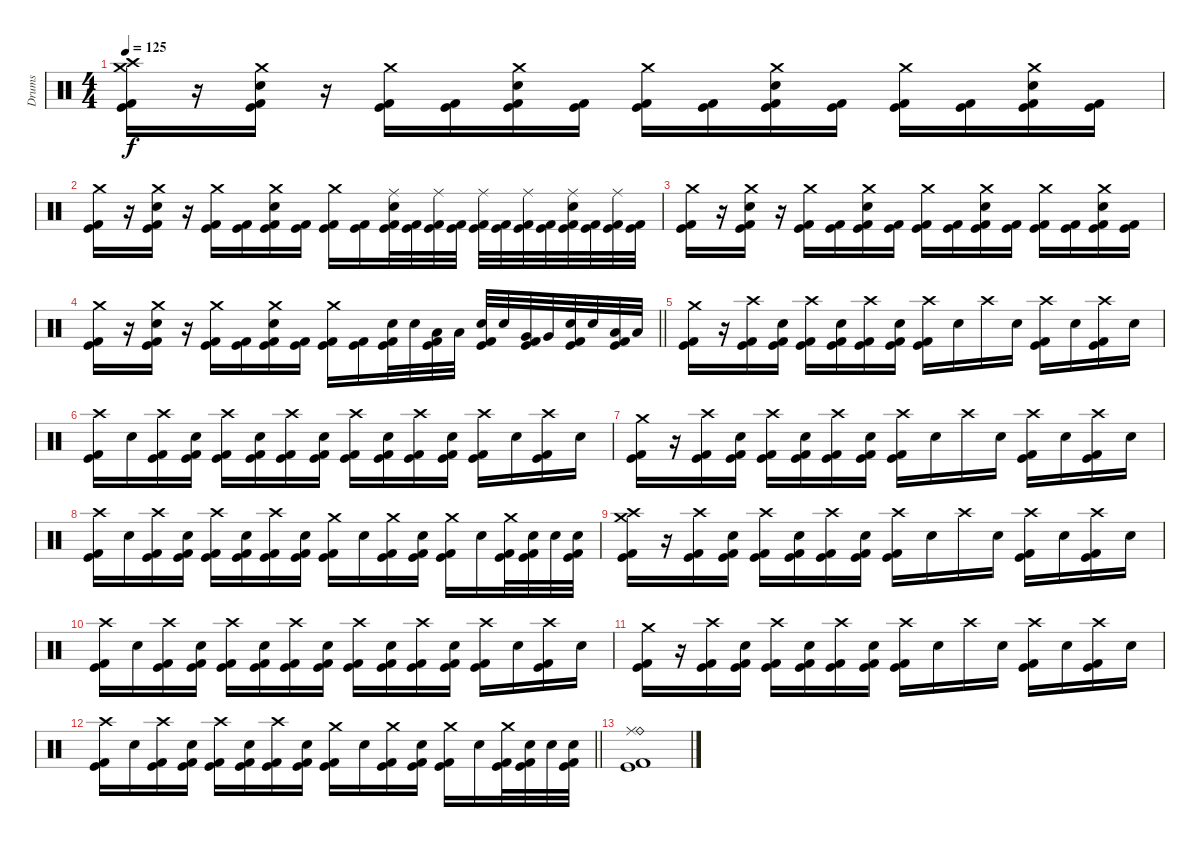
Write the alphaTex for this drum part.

\track ("Drums" "Drums") {instrument percussion}
\staff {score}
\articulation defaults
\ts (4 4)
\tempo 125
\clef neutral
\ks c
("Crash medium (hit)" "Crash high (hit)" "Kick (hit)" "Kick (hit) 2").16{dy f} r.16 ("Crash medium (hit)" "Electric Snare (hit)" "Kick (hit)" "Kick (hit) 2").16 r.16 ("Crash medium (hit)" "Kick (hit)" "Kick (hit) 2").16 ("Kick (hit)" "Kick (hit) 2").16 ("Crash medium (hit)" "Electric Snare (hit)" "Kick (hit)" "Kick (hit) 2").16 ("Kick (hit)" "Kick (hit) 2").16 ("Crash medium (hit)" "Kick (hit)" "Kick (hit) 2").16 ("Kick (hit)" "Kick (hit) 2").16 ("Crash medium (hit)" "Electric Snare (hit)" "Kick (hit)" "Kick (hit) 2").16 ("Kick (hit)" "Kick (hit) 2").16 ("Crash medium (hit)" "Kick (hit)" "Kick (hit) 2").16 ("Kick (hit)" "Kick (hit) 2").16 ("Crash medium (hit)" "Electric Snare (hit)" "Kick (hit)" "Kick (hit) 2").16 ("Kick (hit)" "Kick (hit) 2").16 |
("Crash medium (hit)" "Kick (hit)" "Kick (hit) 2").16 r.16 ("Crash medium (hit)" "Electric Snare (hit)" "Kick (hit)" "Kick (hit) 2").16 r.16 ("Crash medium (hit)" "Kick (hit)" "Kick (hit) 2").16 ("Kick (hit)" "Kick (hit) 2").16 ("Crash medium (hit)" "Electric Snare (hit)" "Kick (hit)" "Kick (hit) 2").16 ("Kick (hit)" "Kick (hit) 2").16 ("Crash medium (hit)" "Kick (hit)" "Kick (hit) 2").16 ("Kick (hit)" "Kick (hit) 2").16 ("Ride (middle)" "Electric Snare (hit)" "Kick (hit)" "Kick (hit) 2").32 ("Kick (hit)" "Kick (hit) 2").32 ("Ride (middle)" "Kick (hit)" "Kick (hit) 2").32 ("Kick (hit)" "Kick (hit) 2").32 ("Ride (middle)" "Kick (hit)" "Kick (hit) 2").32 ("Kick (hit)" "Kick (hit) 2").32 ("Ride (middle)" "Kick (hit)" "Kick (hit) 2").32 ("Kick (hit)" "Kick (hit) 2").32 ("Ride (middle)" "Electric Snare (hit)" "Kick (hit)" "Kick (hit) 2").32 ("Kick (hit)" "Kick (hit) 2").32 ("Ride (middle)" "Kick (hit)" "Kick (hit) 2").32 ("Kick (hit)" "Kick (hit) 2").32 |
("Crash medium (hit)" "Kick (hit)" "Kick (hit) 2").16 r.16 ("Crash medium (hit)" "Electric Snare (hit)" "Kick (hit)" "Kick (hit) 2").16 r.16 ("Crash medium (hit)" "Kick (hit)" "Kick (hit) 2").16 ("Kick (hit)" "Kick (hit) 2").16 ("Crash medium (hit)" "Electric Snare (hit)" "Kick (hit)" "Kick (hit) 2").16 ("Kick (hit)" "Kick (hit) 2").16 ("Crash medium (hit)" "Kick (hit)" "Kick (hit) 2").16 ("Kick (hit)" "Kick (hit) 2").16 ("Crash medium (hit)" "Electric Snare (hit)" "Kick (hit)" "Kick (hit) 2").16 ("Kick (hit)" "Kick (hit) 2").16 ("Crash medium (hit)" "Kick (hit)" "Kick (hit) 2").16 ("Kick (hit)" "Kick (hit) 2").16 ("Crash medium (hit)" "Electric Snare (hit)" "Kick (hit)" "Kick (hit) 2").16 ("Kick (hit)" "Kick (hit) 2").16 |
\barLineRight lightlight
("Crash medium (hit)" "Kick (hit)" "Kick (hit) 2").16 r.16 ("Crash medium (hit)" "Electric Snare (hit)" "Kick (hit)" "Kick (hit) 2").16 r.16 ("Crash medium (hit)" "Kick (hit)" "Kick (hit) 2").16 ("Kick (hit)" "Kick (hit) 2").16 ("Crash medium (hit)" "Electric Snare (hit)" "Kick (hit)" "Kick (hit) 2").16 ("Kick (hit)" "Kick (hit) 2").16 ("Crash medium (hit)" "Kick (hit)" "Kick (hit) 2").16 ("Kick (hit)" "Kick (hit) 2").16 ("Electric Snare (hit)" "Kick (hit)" "Kick (hit) 2").32 "Electric Snare (hit)".32 ("Low Tom (hit)" "Kick (hit)" "Kick (hit) 2").32 "Low Tom (hit)".32 ("Electric Snare (hit)" "Kick (hit)" "Kick (hit) 2").32 "Electric Snare (hit)".32 ("Very Low Tom (hit)" "Kick (hit)" "Kick (hit) 2").32 "Very Low Tom (hit)".32 ("Electric Snare (hit)" "Kick (hit)" "Kick (hit) 2").32 "Electric Snare (hit)".32 ("Low Floor Tom (hit)" "Kick (hit)" "Kick (hit) 2").32 "Low Floor Tom (hit)".32 |
("Crash medium (hit)" "Kick (hit)" "Kick (hit) 2").16 r.16 ("Crash high (hit)" "Kick (hit)" "Kick (hit) 2").16 ("Electric Snare (hit)" "Kick (hit)" "Kick (hit) 2").16 ("Crash high (hit)" "Kick (hit)" "Kick (hit) 2").16 ("Electric Snare (hit)" "Kick (hit)" "Kick (hit) 2").16 ("Crash high (hit)" "Kick (hit)" "Kick (hit) 2").16 ("Electric Snare (hit)" "Kick (hit)" "Kick (hit) 2").16 ("Crash high (hit)" "Kick (hit)" "Kick (hit) 2").16 "Electric Snare (hit)".16 "Crash high (hit)".16 "Electric Snare (hit)".16 ("Crash high (hit)" "Kick (hit)" "Kick (hit) 2").16 "Electric Snare (hit)".16 ("Crash high (hit)" "Kick (hit)" "Kick (hit) 2").16 "Electric Snare (hit)".16 |
("Crash high (hit)" "Kick (hit)" "Kick (hit) 2").16 "Electric Snare (hit)".16 ("Crash high (hit)" "Kick (hit)" "Kick (hit) 2").16 ("Electric Snare (hit)" "Kick (hit)" "Kick (hit) 2").16 ("Crash high (hit)" "Kick (hit)" "Kick (hit) 2").16 ("Electric Snare (hit)" "Kick (hit)" "Kick (hit) 2").16 ("Crash high (hit)" "Kick (hit)" "Kick (hit) 2").16 ("Electric Snare (hit)" "Kick (hit)" "Kick (hit) 2").16 ("Crash high (hit)" "Kick (hit)" "Kick (hit) 2").16 ("Electric Snare (hit)" "Kick (hit)" "Kick (hit) 2").16 ("Crash high (hit)" "Kick (hit)" "Kick (hit) 2").16 ("Electric Snare (hit)" "Kick (hit)" "Kick (hit) 2").16 ("Crash high (hit)" "Kick (hit)" "Kick (hit) 2").16 "Electric Snare (hit)".16 ("Crash high (hit)" "Kick (hit)" "Kick (hit) 2").16 "Electric Snare (hit)".16 |
("Crash medium (hit)" "Kick (hit)" "Kick (hit) 2").16 r.16 ("Crash high (hit)" "Kick (hit)" "Kick (hit) 2").16 ("Electric Snare (hit)" "Kick (hit)" "Kick (hit) 2").16 ("Crash high (hit)" "Kick (hit)" "Kick (hit) 2").16 ("Electric Snare (hit)" "Kick (hit)" "Kick (hit) 2").16 ("Crash high (hit)" "Kick (hit)" "Kick (hit) 2").16 ("Electric Snare (hit)" "Kick (hit)" "Kick (hit) 2").16 ("Crash high (hit)" "Kick (hit)" "Kick (hit) 2").16 "Electric Snare (hit)".16 "Crash high (hit)".16 "Electric Snare (hit)".16 ("Crash high (hit)" "Kick (hit)" "Kick (hit) 2").16 "Electric Snare (hit)".16 ("Crash high (hit)" "Kick (hit)" "Kick (hit) 2").16 "Electric Snare (hit)".16 |
("Crash high (hit)" "Kick (hit)" "Kick (hit) 2").16 "Electric Snare (hit)".16 ("Crash high (hit)" "Kick (hit)" "Kick (hit) 2").16 ("Electric Snare (hit)" "Kick (hit)" "Kick (hit) 2").16 ("Crash high (hit)" "Kick (hit)" "Kick (hit) 2").16 ("Electric Snare (hit)" "Kick (hit)" "Kick (hit) 2").16 ("Crash high (hit)" "Kick (hit)" "Kick (hit) 2").16 ("Electric Snare (hit)" "Kick (hit)" "Kick (hit) 2").16 ("Crash medium (hit)" "Kick (hit)" "Kick (hit) 2").16 "Electric Snare (hit)".16 ("Crash medium (hit)" "Kick (hit)" "Kick (hit) 2").16 ("Electric Snare (hit)" "Kick (hit)" "Kick (hit) 2").16 ("Crash medium (hit)" "Kick (hit)" "Kick (hit) 2").16 "Electric Snare (hit)".16 ("Crash medium (hit)" "Kick (hit)" "Kick (hit) 2").32 ("Electric Snare (hit)" "Kick (hit)" "Kick (hit) 2").32 "Electric Snare (hit)".32 ("Electric Snare (hit)" "Kick (hit)" "Kick (hit) 2").32 |
("Crash medium (hit)" "Crash high (hit)" "Kick (hit)" "Kick (hit) 2").16 r.16 ("Crash high (hit)" "Kick (hit)" "Kick (hit) 2").16 ("Electric Snare (hit)" "Kick (hit)" "Kick (hit) 2").16 ("Crash high (hit)" "Kick (hit)" "Kick (hit) 2").16 ("Electric Snare (hit)" "Kick (hit)" "Kick (hit) 2").16 ("Crash high (hit)" "Kick (hit)" "Kick (hit) 2").16 ("Electric Snare (hit)" "Kick (hit)" "Kick (hit) 2").16 ("Crash high (hit)" "Kick (hit)" "Kick (hit) 2").16 "Electric Snare (hit)".16 "Crash high (hit)".16 "Electric Snare (hit)".16 ("Crash high (hit)" "Kick (hit)" "Kick (hit) 2").16 "Electric Snare (hit)".16 ("Crash high (hit)" "Kick (hit)" "Kick (hit) 2").16 "Electric Snare (hit)".16 |
("Crash high (hit)" "Kick (hit)" "Kick (hit) 2").16 "Electric Snare (hit)".16 ("Crash high (hit)" "Kick (hit)" "Kick (hit) 2").16 ("Electric Snare (hit)" "Kick (hit)" "Kick (hit) 2").16 ("Crash high (hit)" "Kick (hit)" "Kick (hit) 2").16 ("Electric Snare (hit)" "Kick (hit)" "Kick (hit) 2").16 ("Crash high (hit)" "Kick (hit)" "Kick (hit) 2").16 ("Electric Snare (hit)" "Kick (hit)" "Kick (hit) 2").16 ("Crash high (hit)" "Kick (hit)" "Kick (hit) 2").16 ("Electric Snare (hit)" "Kick (hit)" "Kick (hit) 2").16 ("Crash high (hit)" "Kick (hit)" "Kick (hit) 2").16 ("Electric Snare (hit)" "Kick (hit)" "Kick (hit) 2").16 ("Crash high (hit)" "Kick (hit)" "Kick (hit) 2").16 "Electric Snare (hit)".16 ("Crash high (hit)" "Kick (hit)" "Kick (hit) 2").16 "Electric Snare (hit)".16 |
("Crash medium (hit)" "Kick (hit)" "Kick (hit) 2").16 r.16 ("Crash high (hit)" "Kick (hit)" "Kick (hit) 2").16 ("Electric Snare (hit)" "Kick (hit)" "Kick (hit) 2").16 ("Crash high (hit)" "Kick (hit)" "Kick (hit) 2").16 ("Electric Snare (hit)" "Kick (hit)" "Kick (hit) 2").16 ("Crash high (hit)" "Kick (hit)" "Kick (hit) 2").16 ("Electric Snare (hit)" "Kick (hit)" "Kick (hit) 2").16 ("Crash high (hit)" "Kick (hit)" "Kick (hit) 2").16 "Electric Snare (hit)".16 "Crash high (hit)".16 "Electric Snare (hit)".16 ("Crash high (hit)" "Kick (hit)" "Kick (hit) 2").16 "Electric Snare (hit)".16 ("Crash high (hit)" "Kick (hit)" "Kick (hit) 2").16 "Electric Snare (hit)".16 |
\barLineRight lightlight
("Crash high (hit)" "Kick (hit)" "Kick (hit) 2").16 "Electric Snare (hit)".16 ("Crash high (hit)" "Kick (hit)" "Kick (hit) 2").16 ("Electric Snare (hit)" "Kick (hit)" "Kick (hit) 2").16 ("Crash high (hit)" "Kick (hit)" "Kick (hit) 2").16 ("Electric Snare (hit)" "Kick (hit)" "Kick (hit) 2").16 ("Crash high (hit)" "Kick (hit)" "Kick (hit) 2").16 ("Electric Snare (hit)" "Kick (hit)" "Kick (hit) 2").16 ("Crash medium (hit)" "Kick (hit)" "Kick (hit) 2").16 "Electric Snare (hit)".16 ("Crash medium (hit)" "Kick (hit)" "Kick (hit) 2").16 ("Electric Snare (hit)" "Kick (hit)" "Kick (hit) 2").16 ("Crash medium (hit)" "Kick (hit)" "Kick (hit) 2").16 "Electric Snare (hit)".16 ("Crash medium (hit)" "Kick (hit)" "Kick (hit) 2").32 ("Electric Snare (hit)" "Kick (hit)" "Kick (hit) 2").32 "Electric Snare (hit)".32 ("Electric Snare (hit)" "Kick (hit)" "Kick (hit) 2").32 |
("Ride (bell)" "Ride (middle)" "Kick (hit)" "Kick (hit) 2").1
